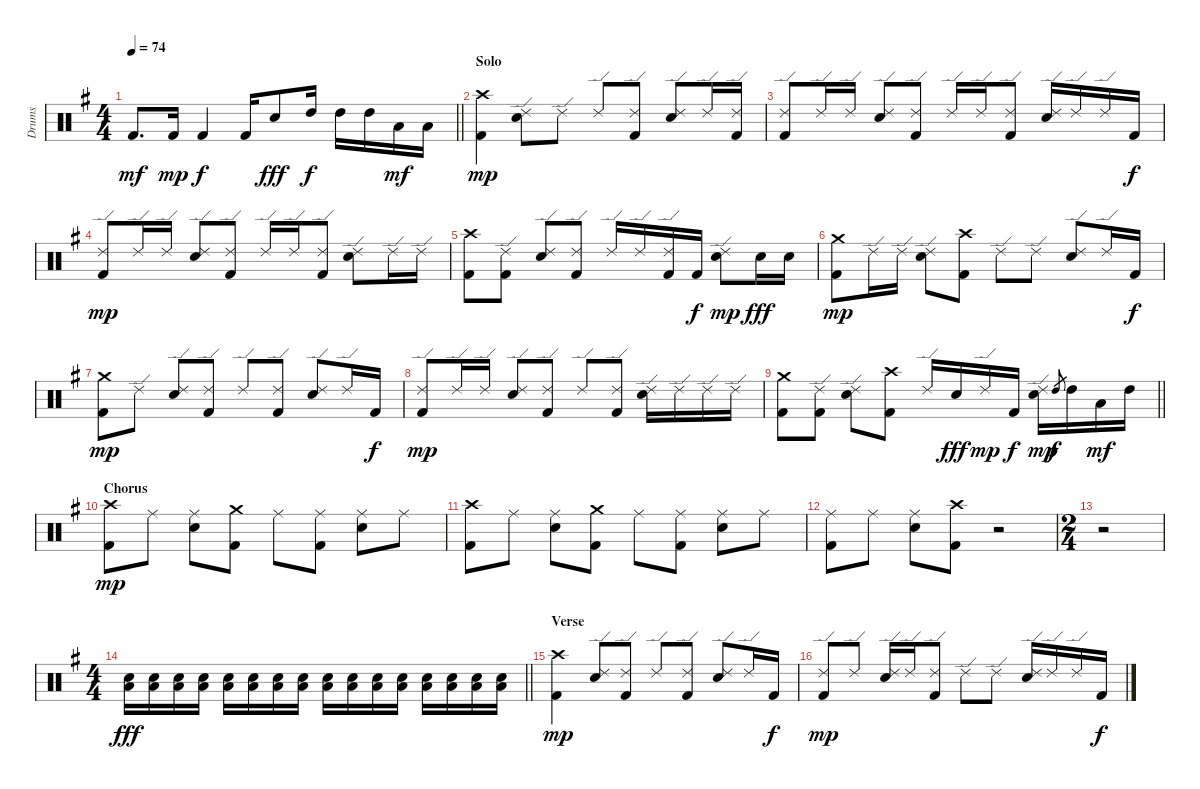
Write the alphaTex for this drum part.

\track ("Drums" "Drums") {instrument percussion}
\staff {score}
\articulation defaults
\ts (4 4)
\tempo 74
\clef neutral
\barLineRight lightlight
\ks g "Kick (hit) 2".8{d dy mf} "Kick (hit) 2".16{dy mp} "Kick (hit) 2".4{dy f} "Kick (hit) 2".16 "Electric Snare (hit)".8{dy fff} "High Tom (hit)".16{dy f} "High Tom (hit)".16 "High Tom (hit)".16 "Low Tom (hit)".16{dy mf} "Low Tom (hit)".16
|
\section ("" "Solo")
("Kick (hit) 2" "Crash high (hit)").4{dy mp} ("Electric Snare (hit)" "Ride (edge) 2").8 "Ride (edge) 2".8 "Ride (edge) 2".8 ("Kick (hit) 2" "Ride (edge) 2").8 ("Electric Snare (hit)" "Ride (edge) 2").8 "Ride (edge) 2".16 ("Kick (hit) 2" "Ride (edge) 2").16 |
("Kick (hit) 2" "Ride (edge) 2").8 "Ride (edge) 2".16 "Ride (edge) 2".16 ("Electric Snare (hit)" "Ride (edge) 2").8 ("Kick (hit) 2" "Ride (edge) 2").8 "Ride (edge) 2".16 "Ride (edge) 2".16 ("Kick (hit) 2" "Ride (edge) 2").8 ("Electric Snare (hit)" "Ride (edge) 2").16 "Ride (edge) 2".16 "Ride (edge) 2".16 "Kick (hit) 2".16{dy f} |
("Kick (hit) 2" "Ride (edge) 2").8{dy mp} "Ride (edge) 2".16 "Ride (edge) 2".16 ("Electric Snare (hit)" "Ride (edge) 2").8 ("Kick (hit) 2" "Ride (edge) 2").8 "Ride (edge) 2".16 "Ride (edge) 2".16 ("Kick (hit) 2" "Ride (edge) 2").8 ("Electric Snare (hit)" "Ride (edge) 2").8 "Ride (edge) 2".16 "Ride (edge) 2".16 |
("Kick (hit) 2" "Crash high (hit)").8 ("Kick (hit) 2" "Ride (edge) 2").8 ("Electric Snare (hit)" "Ride (edge) 2").8 ("Kick (hit) 2" "Ride (edge) 2").8 "Ride (edge) 2".16 "Ride (edge) 2".16 ("Kick (hit) 2" "Ride (edge) 2").16 "Kick (hit) 2".16{dy f} ("Electric Snare (hit)" "Ride (edge) 2").8{dy mp} "Electric Snare (hit)".16{dy fff} "Electric Snare (hit)".16 |
("Kick (hit) 2" "Crash medium (hit)").8{dy mp} "Ride (edge) 2".16 "Ride (edge) 2".16 ("Electric Snare (hit)" "Ride (edge) 2").8 ("Kick (hit) 2" "Crash high (hit)").8 "Ride (edge) 2".8 "Ride (edge) 2".8 ("Electric Snare (hit)" "Ride (edge) 2").8 "Ride (edge) 2".16 "Kick (hit) 2".16{dy f} |
("Kick (hit) 2" "Crash medium (hit)").8{dy mp} "Ride (edge) 2".8 ("Electric Snare (hit)" "Ride (edge) 2").8 ("Kick (hit) 2" "Ride (edge) 2").8 "Ride (edge) 2".8 ("Kick (hit) 2" "Ride (edge) 2").8 ("Electric Snare (hit)" "Ride (edge) 2").8 "Ride (edge) 2".16 "Kick (hit) 2".16{dy f} |
("Kick (hit) 2" "Ride (edge) 2").8{dy mp} "Ride (edge) 2".16 "Ride (edge) 2".16 ("Electric Snare (hit)" "Ride (edge) 2").8 ("Kick (hit) 2" "Ride (edge) 2").8 "Ride (edge) 2".8 ("Kick (hit) 2" "Ride (edge) 2").8 ("Electric Snare (hit)" "Ride (edge) 2").16 "Ride (edge) 2".16 "Ride (edge) 2".16 "Ride (edge) 2".16 |
\barLineRight lightlight
("Kick (hit) 2" "Crash medium (hit)").8 ("Kick (hit) 2" "Ride (edge) 2").8 ("Electric Snare (hit)" "Ride (edge) 2").8 ("Kick (hit) 2" "Crash high (hit)").8 "Ride (edge) 2".16 "Electric Snare (hit)".16{dy fff} "Ride (edge) 2".16{dy mp} "Kick (hit) 2".16{dy f} ("Electric Snare (hit)" "Ride (edge) 2").16{dy mp} "High Tom (hit)".8{gr dy f} "High Tom (hit)".16 "Low Tom (hit)".16{dy mf} "High Tom (hit)".16 |
\section ("" "Chorus")
("Kick (hit) 2" "Crash high (hit)").8{dy mp} "Ride (middle)".8 ("Electric Snare (hit)" "Ride (middle)").8 ("Kick (hit) 2" "Crash medium (hit)").8 "Ride (middle)".8 ("Kick (hit) 2" "Ride (middle)").8 ("Electric Snare (hit)" "Ride (middle)").8 "Ride (middle)".8 |
("Kick (hit) 2" "Crash high (hit)").8 "Ride (middle)".8 ("Electric Snare (hit)" "Ride (middle)").8 ("Kick (hit) 2" "Crash medium (hit)").8 "Ride (middle)".8 ("Kick (hit) 2" "Ride (middle)").8 ("Electric Snare (hit)" "Ride (middle)").8 "Ride (middle)".8 |
("Kick (hit) 2" "Ride (middle)").8 "Ride (middle)".8 ("Electric Snare (hit)" "Ride (middle)").8 ("Kick (hit) 2" "Crash high (hit)").8 r.2 |
\ts (2 4)
r.2 |
\ts (4 4)
\barLineRight lightlight
("Electric Snare (hit)" "Low Floor Tom (hit)").16{dy fff} ("Electric Snare (hit)" "Low Floor Tom (hit)").16 ("Electric Snare (hit)" "Low Floor Tom (hit)").16 ("Electric Snare (hit)" "Low Floor Tom (hit)").16 ("Electric Snare (hit)" "Low Floor Tom (hit)").16 ("Electric Snare (hit)" "Low Floor Tom (hit)").16 ("Electric Snare (hit)" "Low Floor Tom (hit)").16 ("Electric Snare (hit)" "Low Floor Tom (hit)").16 ("Electric Snare (hit)" "Low Floor Tom (hit)").16 ("Electric Snare (hit)" "Low Floor Tom (hit)").16 ("Electric Snare (hit)" "Low Floor Tom (hit)").16 ("Electric Snare (hit)" "Low Floor Tom (hit)").16 ("Electric Snare (hit)" "Low Floor Tom (hit)").16 ("Electric Snare (hit)" "Low Floor Tom (hit)").16 ("Electric Snare (hit)" "Low Floor Tom (hit)").16 ("Electric Snare (hit)" "Low Floor Tom (hit)").16 |
\section ("" "Verse")
("Kick (hit) 2" "Crash high (hit)").4{dy mp} ("Electric Snare (hit)" "Ride (edge) 2").8 ("Kick (hit) 2" "Ride (edge) 2").8 "Ride (edge) 2".8 ("Kick (hit) 2" "Ride (edge) 2").8 ("Electric Snare (hit)" "Ride (edge) 2").8 "Ride (edge) 2".16 "Kick (hit) 2".16{dy f} |
("Kick (hit) 2" "Ride (edge) 2").8{dy mp} "Ride (edge) 2".8 ("Electric Snare (hit)" "Ride (edge) 2").16 "Ride (edge) 2".16 ("Kick (hit) 2" "Ride (edge) 2").8 "Ride (edge) 2".8 "Ride (edge) 2".8 ("Electric Snare (hit)" "Ride (edge) 2").16 "Ride (edge) 2".16 "Ride (edge) 2".16 "Kick (hit) 2".16{dy f}
